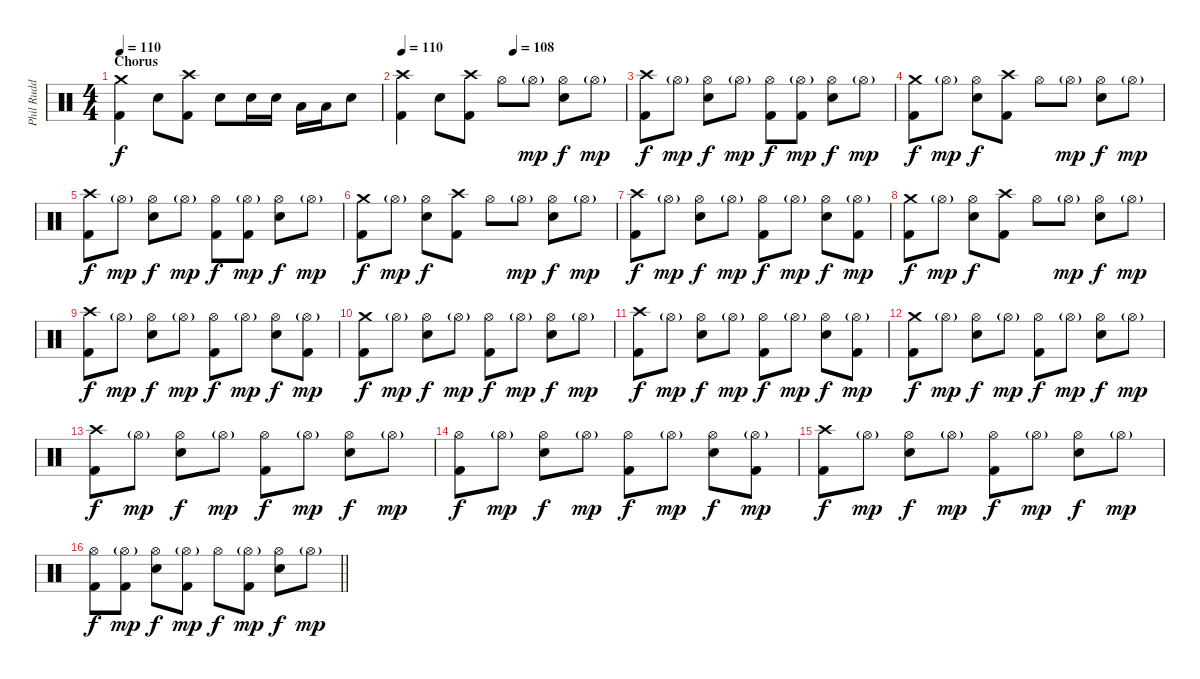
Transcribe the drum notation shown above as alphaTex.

\track ("Phil Rudd" "Phil Rudd") {instrument percussion}
\staff {score}
\articulation defaults
\ts (4 4)
\section ("" "Chorus")
\tempo 110
\clef neutral
\ks c
("Crash medium (hit)" "Kick (hit) 2").4{dy f} "Electric Snare (hit)".8 ("Crash high (hit)" "Kick (hit) 2").8 "Electric Snare (hit)".8 "Electric Snare (hit)".16 "Electric Snare (hit)".16 "Low Tom (hit)".16 "Low Tom (hit)".16 "Electric Snare (hit)".8 |
\tempo 110
\tempo (108 0.5)
("Crash high (hit)" "Kick (hit) 2").4 "Electric Snare (hit)".8 ("Crash high (hit)" "Kick (hit) 2").8 "Hi-Hat (open)".8 "Hi-Hat (open)"{g}.8{dy mp} ("Hi-Hat (open)" "Electric Snare (hit)").8{dy f} "Hi-Hat (open)"{g}.8{dy mp} |
("Crash high (hit)" "Kick (hit) 2").8{dy f} "Hi-Hat (open)"{g}.8{dy mp} ("Hi-Hat (open)" "Electric Snare (hit)").8{dy f} "Hi-Hat (open)"{g}.8{dy mp} ("Hi-Hat (open)" "Kick (hit) 2").8{dy f} ("Hi-Hat (open)"{g} "Kick (hit) 2").8{dy mp} ("Hi-Hat (open)" "Electric Snare (hit)").8{dy f} "Hi-Hat (open)"{g}.8{dy mp} |
("Crash medium (hit)" "Kick (hit) 2").8{dy f} "Hi-Hat (open)"{g}.8{dy mp} ("Hi-Hat (open)" "Electric Snare (hit)").8{dy f} ("Crash high (hit)" "Kick (hit) 2").8 "Hi-Hat (open)".8 "Hi-Hat (open)"{g}.8{dy mp} ("Hi-Hat (open)" "Electric Snare (hit)").8{dy f} "Hi-Hat (open)"{g}.8{dy mp} |
("Crash high (hit)" "Kick (hit) 2").8{dy f} "Hi-Hat (open)"{g}.8{dy mp} ("Hi-Hat (open)" "Electric Snare (hit)").8{dy f} "Hi-Hat (open)"{g}.8{dy mp} ("Hi-Hat (open)" "Kick (hit) 2").8{dy f} ("Hi-Hat (open)"{g} "Kick (hit) 2").8{dy mp} ("Hi-Hat (open)" "Electric Snare (hit)").8{dy f} "Hi-Hat (open)"{g}.8{dy mp} |
("Crash medium (hit)" "Kick (hit) 2").8{dy f} "Hi-Hat (open)"{g}.8{dy mp} ("Hi-Hat (open)" "Electric Snare (hit)").8{dy f} ("Crash high (hit)" "Kick (hit) 2").8 "Hi-Hat (open)".8 "Hi-Hat (open)"{g}.8{dy mp} ("Hi-Hat (open)" "Electric Snare (hit)").8{dy f} "Hi-Hat (open)"{g}.8{dy mp} |
("Crash high (hit)" "Kick (hit) 2").8{dy f} "Hi-Hat (open)"{g}.8{dy mp} ("Hi-Hat (open)" "Electric Snare (hit)").8{dy f} "Hi-Hat (open)"{g}.8{dy mp} ("Hi-Hat (open)" "Kick (hit) 2").8{dy f} "Hi-Hat (open)"{g}.8{dy mp} ("Hi-Hat (open)" "Electric Snare (hit)").8{dy f} ("Hi-Hat (open)"{g} "Kick (hit) 2").8{dy mp} |
("Crash medium (hit)" "Kick (hit) 2").8{dy f} "Hi-Hat (open)"{g}.8{dy mp} ("Hi-Hat (open)" "Electric Snare (hit)").8{dy f} ("Crash high (hit)" "Kick (hit) 2").8 "Hi-Hat (open)".8 "Hi-Hat (open)"{g}.8{dy mp} ("Hi-Hat (open)" "Electric Snare (hit)").8{dy f} "Hi-Hat (open)"{g}.8{dy mp} |
("Crash high (hit)" "Kick (hit) 2").8{dy f} "Hi-Hat (open)"{g}.8{dy mp} ("Hi-Hat (open)" "Electric Snare (hit)").8{dy f} "Hi-Hat (open)"{g}.8{dy mp} ("Hi-Hat (open)" "Kick (hit) 2").8{dy f} "Hi-Hat (open)"{g}.8{dy mp} ("Hi-Hat (open)" "Electric Snare (hit)").8{dy f} ("Hi-Hat (open)"{g} "Kick (hit) 2").8{dy mp} |
("Crash medium (hit)" "Kick (hit) 2").8{dy f} "Hi-Hat (open)"{g}.8{dy mp} ("Hi-Hat (open)" "Electric Snare (hit)").8{dy f} "Hi-Hat (open)"{g}.8{dy mp} ("Hi-Hat (open)" "Kick (hit) 2").8{dy f} "Hi-Hat (open)"{g}.8{dy mp} ("Hi-Hat (open)" "Electric Snare (hit)").8{dy f} "Hi-Hat (open)"{g}.8{dy mp} |
("Crash high (hit)" "Kick (hit) 2").8{dy f} "Hi-Hat (open)"{g}.8{dy mp} ("Hi-Hat (open)" "Electric Snare (hit)").8{dy f} "Hi-Hat (open)"{g}.8{dy mp} ("Hi-Hat (open)" "Kick (hit) 2").8{dy f} "Hi-Hat (open)"{g}.8{dy mp} ("Hi-Hat (open)" "Electric Snare (hit)").8{dy f} ("Hi-Hat (open)"{g} "Kick (hit) 2").8{dy mp} |
("Crash medium (hit)" "Kick (hit) 2").8{dy f} "Hi-Hat (open)"{g}.8{dy mp} ("Hi-Hat (open)" "Electric Snare (hit)").8{dy f} "Hi-Hat (open)"{g}.8{dy mp} ("Hi-Hat (open)" "Kick (hit) 2").8{dy f} "Hi-Hat (open)"{g}.8{dy mp} ("Hi-Hat (open)" "Electric Snare (hit)").8{dy f} "Hi-Hat (open)"{g}.8{dy mp} |
("Crash high (hit)" "Kick (hit) 2").8{dy f} "Hi-Hat (open)"{g}.8{dy mp} ("Hi-Hat (open)" "Electric Snare (hit)").8{dy f} "Hi-Hat (open)"{g}.8{dy mp} ("Hi-Hat (open)" "Kick (hit) 2").8{dy f} "Hi-Hat (open)"{g}.8{dy mp} ("Hi-Hat (open)" "Electric Snare (hit)").8{dy f} "Hi-Hat (open)"{g}.8{dy mp} |
("Hi-Hat (open)" "Kick (hit) 2").8{dy f} "Hi-Hat (open)"{g}.8{dy mp} ("Hi-Hat (open)" "Electric Snare (hit)").8{dy f} "Hi-Hat (open)"{g}.8{dy mp} ("Hi-Hat (open)" "Kick (hit) 2").8{dy f} "Hi-Hat (open)"{g}.8{dy mp} ("Hi-Hat (open)" "Electric Snare (hit)").8{dy f} ("Hi-Hat (open)"{g} "Kick (hit) 2").8{dy mp} |
("Crash high (hit)" "Kick (hit) 2").8{dy f} "Hi-Hat (open)"{g}.8{dy mp} ("Hi-Hat (open)" "Electric Snare (hit)").8{dy f} "Hi-Hat (open)"{g}.8{dy mp} ("Hi-Hat (open)" "Kick (hit) 2").8{dy f} "Hi-Hat (open)"{g}.8{dy mp} ("Hi-Hat (open)" "Electric Snare (hit)").8{dy f} "Hi-Hat (open)"{g}.8{dy mp} |
\barLineRight lightlight
("Hi-Hat (open)" "Kick (hit) 2").8{dy f} ("Hi-Hat (open)"{g} "Kick (hit) 2").8{dy mp} ("Hi-Hat (open)" "Electric Snare (hit)").8{dy f} ("Hi-Hat (open)"{g} "Kick (hit) 2").8{dy mp} "Hi-Hat (open)".8{dy f} ("Hi-Hat (open)"{g} "Kick (hit) 2").8{dy mp} ("Hi-Hat (open)" "Electric Snare (hit)").8{dy f} "Hi-Hat (open)"{g}.8{dy mp}
